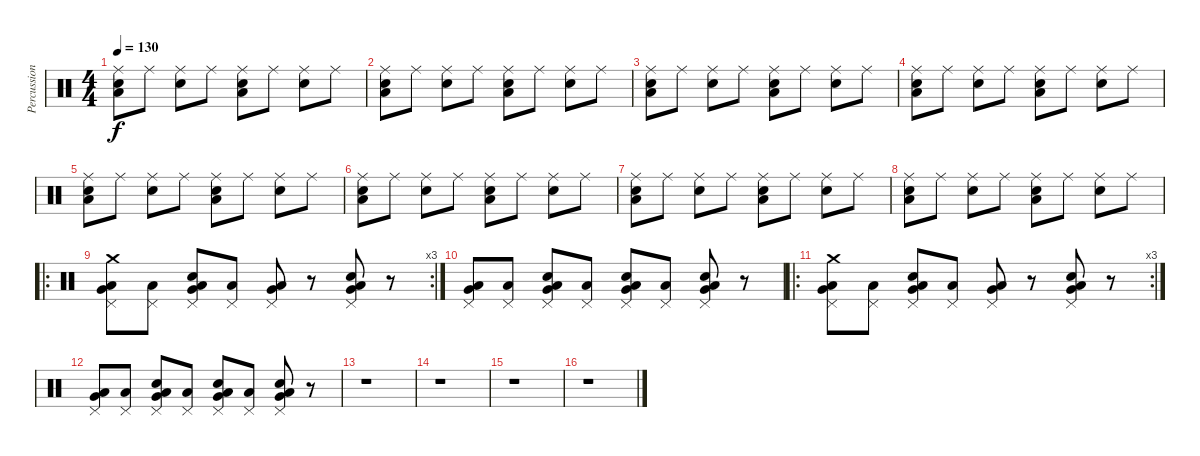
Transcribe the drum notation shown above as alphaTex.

\track ("Percussions" "Percussion") {instrument percussion}
\staff {score}
\articulation defaults
\ts (4 4)
\tempo 130
\clef neutral
\ks c
("Low Floor Tom (hit)" "Snare (hit) 2" "Ride (middle)").8{dy f} "Ride (middle)".8 ("Snare (hit) 2" "Ride (middle)").8 "Ride (middle)".8 ("Low Floor Tom (hit)" "Snare (hit) 2" "Ride (middle)").8 "Ride (middle)".8 ("Snare (hit) 2" "Ride (middle)").8 "Ride (middle)".8 |
("Low Floor Tom (hit)" "Snare (hit) 2" "Ride (middle)").8 "Ride (middle)".8 ("Snare (hit) 2" "Ride (middle)").8 "Ride (middle)".8 ("Low Floor Tom (hit)" "Snare (hit) 2" "Ride (middle)").8 "Ride (middle)".8 ("Snare (hit) 2" "Ride (middle)").8 "Ride (middle)".8 |
("Low Floor Tom (hit)" "Snare (hit) 2" "Ride (middle)").8 "Ride (middle)".8 ("Snare (hit) 2" "Ride (middle)").8 "Ride (middle)".8 ("Low Floor Tom (hit)" "Snare (hit) 2" "Ride (middle)").8 "Ride (middle)".8 ("Snare (hit) 2" "Ride (middle)").8 "Ride (middle)".8 |
("Low Floor Tom (hit)" "Snare (hit) 2" "Ride (middle)").8 "Ride (middle)".8 ("Snare (hit) 2" "Ride (middle)").8 "Ride (middle)".8 ("Low Floor Tom (hit)" "Snare (hit) 2" "Ride (middle)").8 "Ride (middle)".8 ("Snare (hit) 2" "Ride (middle)").8 "Ride (middle)".8 |
("Low Floor Tom (hit)" "Snare (hit) 2" "Ride (middle)").8 "Ride (middle)".8 ("Snare (hit) 2" "Ride (middle)").8 "Ride (middle)".8 ("Low Floor Tom (hit)" "Snare (hit) 2" "Ride (middle)").8 "Ride (middle)".8 ("Snare (hit) 2" "Ride (middle)").8 "Ride (middle)".8 |
("Low Floor Tom (hit)" "Snare (hit) 2" "Ride (middle)").8 "Ride (middle)".8 ("Snare (hit) 2" "Ride (middle)").8 "Ride (middle)".8 ("Low Floor Tom (hit)" "Snare (hit) 2" "Ride (middle)").8 "Ride (middle)".8 ("Snare (hit) 2" "Ride (middle)").8 "Ride (middle)".8 |
("Low Floor Tom (hit)" "Snare (hit) 2" "Ride (middle)").8 "Ride (middle)".8 ("Snare (hit) 2" "Ride (middle)").8 "Ride (middle)".8 ("Low Floor Tom (hit)" "Snare (hit) 2" "Ride (middle)").8 "Ride (middle)".8 ("Snare (hit) 2" "Ride (middle)").8 "Ride (middle)".8 |
("Low Floor Tom (hit)" "Snare (hit) 2" "Ride (middle)").8 "Ride (middle)".8 ("Snare (hit) 2" "Ride (middle)").8 "Ride (middle)".8 ("Low Floor Tom (hit)" "Snare (hit) 2" "Ride (middle)").8 "Ride (middle)".8 ("Snare (hit) 2" "Ride (middle)").8 "Ride (middle)".8 |
\ro
\rc 3
("Low Floor Tom (hit)" "Very Low Tom (hit)" "Pedal Hi-Hat (hit)" "Crash medium (hit)").8 ("Low Floor Tom (hit)" "Pedal Hi-Hat (hit)").8 ("Low Floor Tom (hit)" "Snare (hit) 2" "Very Low Tom (hit)" "Pedal Hi-Hat (hit)").8 ("Low Floor Tom (hit)" "Pedal Hi-Hat (hit)").8 ("Low Floor Tom (hit)" "Very Low Tom (hit)" "Pedal Hi-Hat (hit)").8 r.8 ("Low Floor Tom (hit)" "Snare (hit) 2" "Very Low Tom (hit)" "Pedal Hi-Hat (hit)").8 r.8 |
("Low Floor Tom (hit)" "Very Low Tom (hit)" "Pedal Hi-Hat (hit)").8 ("Low Floor Tom (hit)" "Pedal Hi-Hat (hit)").8 ("Low Floor Tom (hit)" "Snare (hit) 2" "Very Low Tom (hit)" "Pedal Hi-Hat (hit)").8 ("Low Floor Tom (hit)" "Pedal Hi-Hat (hit)").8 ("Low Floor Tom (hit)" "Snare (hit) 2" "Very Low Tom (hit)" "Pedal Hi-Hat (hit)").8 ("Low Floor Tom (hit)" "Pedal Hi-Hat (hit)").8 ("Low Floor Tom (hit)" "Snare (hit) 2" "Very Low Tom (hit)" "Pedal Hi-Hat (hit)").8 r.8 |
\ro
\rc 3
("Low Floor Tom (hit)" "Very Low Tom (hit)" "Pedal Hi-Hat (hit)" "Crash medium (hit)").8 ("Low Floor Tom (hit)" "Pedal Hi-Hat (hit)").8 ("Low Floor Tom (hit)" "Snare (hit) 2" "Very Low Tom (hit)" "Pedal Hi-Hat (hit)").8 ("Low Floor Tom (hit)" "Pedal Hi-Hat (hit)").8 ("Low Floor Tom (hit)" "Very Low Tom (hit)" "Pedal Hi-Hat (hit)").8 r.8 ("Low Floor Tom (hit)" "Snare (hit) 2" "Very Low Tom (hit)" "Pedal Hi-Hat (hit)").8 r.8 |
("Low Floor Tom (hit)" "Very Low Tom (hit)" "Pedal Hi-Hat (hit)").8 ("Low Floor Tom (hit)" "Pedal Hi-Hat (hit)").8 ("Low Floor Tom (hit)" "Snare (hit) 2" "Very Low Tom (hit)" "Pedal Hi-Hat (hit)").8 ("Low Floor Tom (hit)" "Pedal Hi-Hat (hit)").8 ("Low Floor Tom (hit)" "Snare (hit) 2" "Very Low Tom (hit)" "Pedal Hi-Hat (hit)").8 ("Low Floor Tom (hit)" "Pedal Hi-Hat (hit)").8 ("Low Floor Tom (hit)" "Snare (hit) 2" "Very Low Tom (hit)" "Pedal Hi-Hat (hit)").8 r.8 |
r.1 |
r.1 |
r.1 |
r.1
